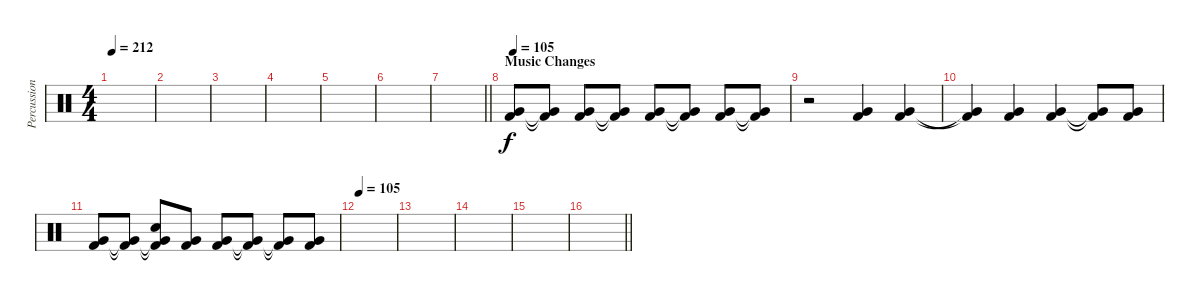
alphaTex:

\track ("Percussion" "Percussion") {instrument percussion}
\staff {score}
\articulation defaults
\ts (4 4)
\tempo 212
\clef neutral
\ks c
|
|
|
|
|
|
\barLineRight lightlight
|
\section ("" "Music Changes")
\tempo 105
("Kick (hit) 2" "Very Low Tom (hit)").8 ("Kick (hit) 2"{t} "Very Low Tom (hit)"{t}).8 ("Kick (hit) 2" "Very Low Tom (hit)").8 ("Kick (hit) 2"{t} "Very Low Tom (hit)"{t}).8 ("Kick (hit) 2" "Very Low Tom (hit)").8 ("Kick (hit) 2"{t} "Very Low Tom (hit)"{t}).8 ("Kick (hit) 2" "Very Low Tom (hit)").8 ("Kick (hit) 2"{t} "Very Low Tom (hit)"{t}).8 |
r.2 ("Kick (hit) 2" "Very Low Tom (hit)").4 ("Kick (hit) 2" "Very Low Tom (hit)").4 |
("Very Low Tom (hit)"{t} "Kick (hit) 2"{t}).4 ("Kick (hit) 2" "Very Low Tom (hit)").4 ("Kick (hit) 2" "Very Low Tom (hit)").4 ("Kick (hit) 2"{t} "Very Low Tom (hit)"{t}).8 ("Kick (hit) 2" "Very Low Tom (hit)").8 |
("Kick (hit) 2" "Very Low Tom (hit)").8 ("Kick (hit) 2"{t} "Very Low Tom (hit)"{t}).8 ("Kick (hit) 2"{t} "Very Low Tom (hit)"{t} "Snare (hit)").8 ("Kick (hit) 2" "Very Low Tom (hit)").8 ("Kick (hit) 2" "Very Low Tom (hit)").8 ("Kick (hit) 2"{t} "Very Low Tom (hit)"{t}).8 ("Kick (hit) 2"{t} "Very Low Tom (hit)"{t}).8 ("Kick (hit) 2" "Very Low Tom (hit)").8 |
\tempo 105
|
|
|
|
\barLineRight lightlight
